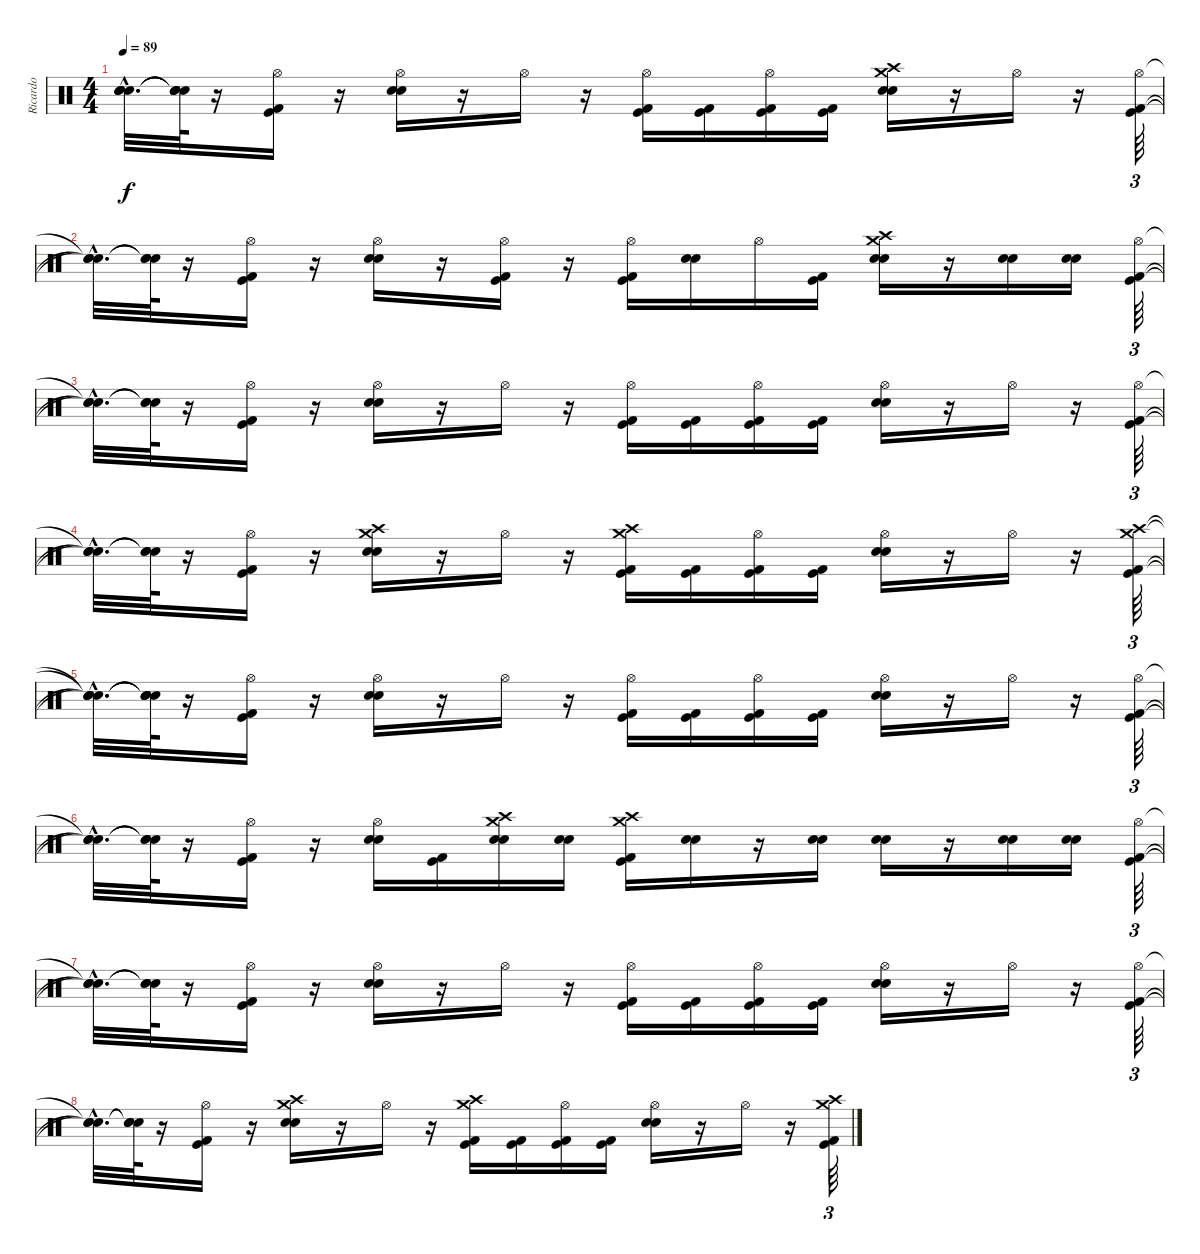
\track ("Ricardo" "Ricardo") {instrument percussion}
\staff {score}
\articulation defaults
\ts (4 4)
\tempo 89
\clef neutral
\ks c
("Snare (hit)"{hac t} "Snare (hit)"{hac t} "Snare (hit)"{hac t} "Snare (hit)"{hac t}).32{d dy f} ("Snare (hit)"{t} "Snare (hit)"{t} "Snare (hit)"{t} "Snare (hit)"{t}).64 r.16 ("Hi-Hat (open)" "Kick (hit) 2" "Kick (hit)").16 r.16 ("Hi-Hat (open)" "Electric Snare (hit)" "Snare (hit) 2").16 r.16 "Hi-Hat (open)".16 r.16 ("Hi-Hat (open)" "Kick (hit) 2" "Kick (hit)").16 ("Kick (hit) 2" "Kick (hit)").16 ("Hi-Hat (open)" "Kick (hit) 2" "Kick (hit)").16 ("Kick (hit) 2" "Kick (hit)").16 ("Crash medium (hit)" "Crash high (hit)" "Electric Snare (hit)" "Snare (hit) 2").16 r.16 "Hi-Hat (open)".16 r.16 ("Hi-Hat (open)" "Kick (hit) 2" "Kick (hit)").64{tu (3 2)} |
("Snare (hit)"{hac t} "Snare (hit)"{hac t} "Snare (hit)"{hac t}).32{d} ("Snare (hit)"{t} "Snare (hit)"{t} "Snare (hit)"{t}).64 r.16 ("Hi-Hat (open)" "Kick (hit) 2" "Kick (hit)").16 r.16 ("Hi-Hat (open)" "Electric Snare (hit)" "Snare (hit) 2").16 r.16 ("Kick (hit) 2" "Kick (hit)" "Hi-Hat (open)").16 r.16 ("Hi-Hat (open)" "Kick (hit) 2" "Kick (hit)").16 ("Electric Snare (hit)" "Snare (hit) 2").16 "Hi-Hat (open)".16 ("Kick (hit) 2" "Kick (hit)").16 ("Crash medium (hit)" "Crash high (hit)" "Electric Snare (hit)" "Snare (hit) 2").16 r.16 ("Snare (hit) 2" "Electric Snare (hit)").16 ("Electric Snare (hit)" "Snare (hit) 2").16 ("Hi-Hat (open)" "Kick (hit) 2" "Kick (hit)").64{tu (3 2)} |
("Snare (hit)"{hac t} "Snare (hit)"{hac t} "Snare (hit)"{hac t}).32{d} ("Snare (hit)"{t} "Snare (hit)"{t} "Snare (hit)"{t}).64 r.16 ("Hi-Hat (open)" "Kick (hit) 2" "Kick (hit)").16 r.16 ("Hi-Hat (open)" "Electric Snare (hit)" "Snare (hit) 2").16 r.16 "Hi-Hat (open)".16 r.16 ("Hi-Hat (open)" "Kick (hit) 2" "Kick (hit)").16 ("Kick (hit) 2" "Kick (hit)").16 ("Hi-Hat (open)" "Kick (hit) 2" "Kick (hit)").16 ("Kick (hit) 2" "Kick (hit)").16 ("Hi-Hat (open)" "Electric Snare (hit)" "Snare (hit) 2").16 r.16 "Hi-Hat (open)".16 r.16 ("Hi-Hat (open)" "Kick (hit) 2" "Kick (hit)").64{tu (3 2)} |
("Snare (hit)"{hac t} "Snare (hit)"{hac t} "Snare (hit)"{hac t}).32{d} ("Snare (hit)"{t} "Snare (hit)"{t} "Snare (hit)"{t}).64 r.16 ("Hi-Hat (open)" "Kick (hit) 2" "Kick (hit)").16 r.16 ("Crash medium (hit)" "Crash high (hit)" "Electric Snare (hit)" "Snare (hit) 2").16 r.16 "Hi-Hat (open)".16 r.16 ("Crash medium (hit)" "Crash high (hit)" "Kick (hit) 2" "Kick (hit)").16 ("Kick (hit) 2" "Kick (hit)").16 ("Hi-Hat (open)" "Kick (hit) 2" "Kick (hit)").16 ("Kick (hit) 2" "Kick (hit)").16 ("Hi-Hat (open)" "Electric Snare (hit)" "Snare (hit) 2").16 r.16 "Hi-Hat (open)".16 r.16 ("Crash medium (hit)" "Crash high (hit)" "Kick (hit) 2" "Kick (hit)").64{tu (3 2)} |
("Snare (hit)"{hac t} "Snare (hit)"{hac t} "Snare (hit)"{hac t} "Snare (hit)"{hac t}).32{d} ("Snare (hit)"{t} "Snare (hit)"{t} "Snare (hit)"{t} "Snare (hit)"{t}).64 r.16 ("Hi-Hat (open)" "Kick (hit) 2" "Kick (hit)").16 r.16 ("Hi-Hat (open)" "Electric Snare (hit)" "Snare (hit) 2").16 r.16 "Hi-Hat (open)".16 r.16 ("Hi-Hat (open)" "Kick (hit) 2" "Kick (hit)").16 ("Kick (hit) 2" "Kick (hit)").16 ("Hi-Hat (open)" "Kick (hit) 2" "Kick (hit)").16 ("Kick (hit) 2" "Kick (hit)").16 ("Hi-Hat (open)" "Electric Snare (hit)" "Snare (hit) 2").16 r.16 "Hi-Hat (open)".16 r.16 ("Hi-Hat (open)" "Kick (hit) 2" "Kick (hit)").64{tu (3 2)} |
("Snare (hit)"{hac t} "Snare (hit)"{hac t} "Snare (hit)"{hac t}).32{d} ("Snare (hit)"{t} "Snare (hit)"{t} "Snare (hit)"{t}).64 r.16 ("Hi-Hat (open)" "Kick (hit) 2" "Kick (hit)").16 r.16 ("Hi-Hat (open)" "Electric Snare (hit)" "Snare (hit) 2").16 ("Kick (hit) 2" "Kick (hit)").16{volume 16 balance 8} ("Crash medium (hit)" "Crash high (hit)" "Electric Snare (hit)" "Snare (hit) 2").16 ("Electric Snare (hit)" "Snare (hit) 2").16 ("Crash medium (hit)" "Crash high (hit)" "Kick (hit) 2" "Kick (hit)").16 ("Electric Snare (hit)" "Snare (hit) 2").16 r.16 ("Electric Snare (hit)" "Snare (hit) 2").16 ("Electric Snare (hit)" "Snare (hit) 2").16 r.16 ("Electric Snare (hit)" "Snare (hit) 2").16 ("Electric Snare (hit)" "Snare (hit) 2").16 ("Hi-Hat (open)" "Kick (hit) 2" "Kick (hit)").64{tu (3 2)} |
("Snare (hit)"{hac t} "Snare (hit)"{hac t} "Snare (hit)"{hac t}).32{d} ("Snare (hit)"{t} "Snare (hit)"{t} "Snare (hit)"{t}).64 r.16 ("Hi-Hat (open)" "Kick (hit) 2" "Kick (hit)").16 r.16 ("Hi-Hat (open)" "Electric Snare (hit)" "Snare (hit) 2").16 r.16 "Hi-Hat (open)".16 r.16 ("Hi-Hat (open)" "Kick (hit) 2" "Kick (hit)").16 ("Kick (hit) 2" "Kick (hit)").16 ("Hi-Hat (open)" "Kick (hit) 2" "Kick (hit)").16 ("Kick (hit) 2" "Kick (hit)").16 ("Hi-Hat (open)" "Electric Snare (hit)" "Snare (hit) 2").16 r.16 "Hi-Hat (open)".16 r.16 ("Hi-Hat (open)" "Kick (hit) 2" "Kick (hit)").64{tu (3 2)} |
("Snare (hit)"{hac t} "Snare (hit)"{hac t} "Snare (hit)"{hac t}).32{d} ("Snare (hit)"{t} "Snare (hit)"{t} "Snare (hit)"{t}).64 r.16 ("Hi-Hat (open)" "Kick (hit) 2" "Kick (hit)").16 r.16 ("Crash medium (hit)" "Crash high (hit)" "Electric Snare (hit)" "Snare (hit) 2").16 r.16 "Hi-Hat (open)".16 r.16 ("Crash medium (hit)" "Crash high (hit)" "Kick (hit) 2" "Kick (hit)").16 ("Kick (hit) 2" "Kick (hit)").16 ("Hi-Hat (open)" "Kick (hit) 2" "Kick (hit)").16 ("Kick (hit) 2" "Kick (hit)").16 ("Hi-Hat (open)" "Electric Snare (hit)" "Snare (hit) 2").16 r.16 "Hi-Hat (open)".16 r.16 ("Crash medium (hit)" "Crash high (hit)" "Kick (hit) 2" "Kick (hit)").64{tu (3 2)}
